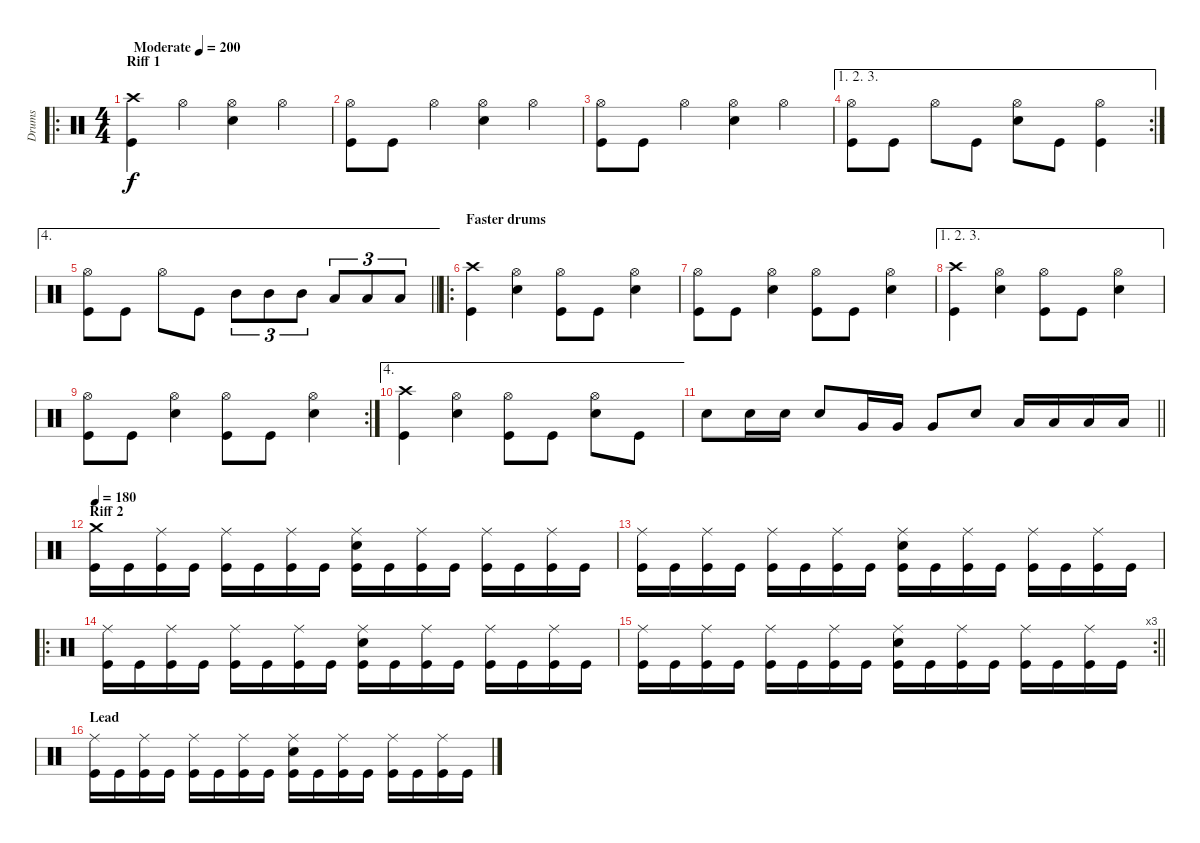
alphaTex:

\track ("Drums" "Drums") {instrument percussion}
\staff {score}
\articulation defaults
\ro
\ts (4 4)
\section ("" "Riff 1")
\tempo (200 "Moderate")
\clef neutral
\ks c
("Crash high (hit)" "Kick (hit)").4{dy f} "Hi-Hat (open)".4 ("Hi-Hat (open)" "Snare (hit) 2").4 "Hi-Hat (open)".4 |
("Hi-Hat (open)" "Kick (hit)").8 "Kick (hit)".8 "Hi-Hat (open)".4 ("Hi-Hat (open)" "Snare (hit) 2").4 "Hi-Hat (open)".4 |
("Hi-Hat (open)" "Kick (hit)").8 "Kick (hit)".8 "Hi-Hat (open)".4 ("Hi-Hat (open)" "Snare (hit) 2").4 "Hi-Hat (open)".4 |
\ae (1 2 3)
\rc 2
("Hi-Hat (open)" "Kick (hit)").8 "Kick (hit)".8 "Hi-Hat (open)".8 "Kick (hit)".8 ("Hi-Hat (open)" "Snare (hit) 2").8 "Kick (hit)".8 ("Hi-Hat (open)" "Kick (hit)").4 |
\ae 4
\barLineRight lightlight
("Hi-Hat (open)" "Kick (hit)").8 "Kick (hit)".8 "Hi-Hat (open)".8 "Kick (hit)".8 "Mid Tom (hit)".8{tu (3 2)} "Mid Tom (hit)".8{tu (3 2)} "Mid Tom (hit)".8{tu (3 2)} "Low Tom (hit)".8{tu (3 2)} "Low Tom (hit)".8{tu (3 2)} "Low Tom (hit)".8{tu (3 2)} |
\ro
\section ("" "Faster drums")
("Crash high (hit)" "Kick (hit)").4 ("Hi-Hat (open)" "Snare (hit) 2").4 ("Hi-Hat (open)" "Kick (hit)").8 "Kick (hit)".8 ("Hi-Hat (open)" "Snare (hit) 2").4 |
("Hi-Hat (open)" "Kick (hit)").8 "Kick (hit)".8 ("Hi-Hat (open)" "Snare (hit) 2").4 ("Hi-Hat (open)" "Kick (hit)").8 "Kick (hit)".8 ("Hi-Hat (open)" "Snare (hit) 2").4 |
\ae (1 2 3)
("Crash high (hit)" "Kick (hit)").4 ("Hi-Hat (open)" "Snare (hit) 2").4 ("Hi-Hat (open)" "Kick (hit)").8 "Kick (hit)".8 ("Hi-Hat (open)" "Snare (hit) 2").4 |
\rc 2
("Hi-Hat (open)" "Kick (hit)").8 "Kick (hit)".8 ("Hi-Hat (open)" "Snare (hit) 2").4 ("Hi-Hat (open)" "Kick (hit)").8 "Kick (hit)".8 ("Hi-Hat (open)" "Snare (hit) 2").4 |
\ae 4
("Crash high (hit)" "Kick (hit)").4 ("Hi-Hat (open)" "Snare (hit) 2").4 ("Hi-Hat (open)" "Kick (hit)").8 "Kick (hit)".8 ("Hi-Hat (open)" "Snare (hit) 2").8 "Kick (hit)".8 |
\barLineRight lightlight "Snare (hit) 2".8 "Snare (hit) 2".16 "Snare (hit) 2".16 "Snare (hit) 2".8 "Very Low Tom (hit)".16 "Very Low Tom (hit)".16 "Very Low Tom (hit)".8 "Snare (hit) 2".8 "Low Floor Tom (hit)".16 "Low Floor Tom (hit)".16 "Low Floor Tom (hit)".16 "Low Floor Tom (hit)".16
|
\section ("" "Riff 2")
\tempo 180
("Crash medium (hit)" "Kick (hit)").16 "Kick (hit)".16 ("Ride (middle)" "Kick (hit)").16 "Kick (hit)".16 ("Ride (middle)" "Kick (hit)").16 "Kick (hit)".16 ("Ride (middle)" "Kick (hit)").16 "Kick (hit)".16 ("Ride (middle)" "Snare (hit) 2" "Kick (hit)").16 "Kick (hit)".16 ("Ride (middle)" "Kick (hit)").16 "Kick (hit)".16 ("Ride (middle)" "Kick (hit)").16 "Kick (hit)".16 ("Ride (middle)" "Kick (hit)").16 "Kick (hit)".16 |
("Ride (middle)" "Kick (hit)").16 "Kick (hit)".16 ("Ride (middle)" "Kick (hit)").16 "Kick (hit)".16 ("Ride (middle)" "Kick (hit)").16 "Kick (hit)".16 ("Ride (middle)" "Kick (hit)").16 "Kick (hit)".16 ("Ride (middle)" "Snare (hit) 2" "Kick (hit)").16 "Kick (hit)".16 ("Ride (middle)" "Kick (hit)").16 "Kick (hit)".16 ("Ride (middle)" "Kick (hit)").16 "Kick (hit)".16 ("Ride (middle)" "Kick (hit)").16 "Kick (hit)".16 |
\ro
("Ride (middle)" "Kick (hit)").16 "Kick (hit)".16 ("Ride (middle)" "Kick (hit)").16 "Kick (hit)".16 ("Ride (middle)" "Kick (hit)").16 "Kick (hit)".16 ("Ride (middle)" "Kick (hit)").16 "Kick (hit)".16 ("Ride (middle)" "Snare (hit) 2" "Kick (hit)").16 "Kick (hit)".16 ("Ride (middle)" "Kick (hit)").16 "Kick (hit)".16 ("Ride (middle)" "Kick (hit)").16 "Kick (hit)".16 ("Ride (middle)" "Kick (hit)").16 "Kick (hit)".16 |
\rc 3
\barLineRight lightlight
("Ride (middle)" "Kick (hit)").16 "Kick (hit)".16 ("Ride (middle)" "Kick (hit)").16 "Kick (hit)".16 ("Ride (middle)" "Kick (hit)").16 "Kick (hit)".16 ("Ride (middle)" "Kick (hit)").16 "Kick (hit)".16 ("Ride (middle)" "Snare (hit) 2" "Kick (hit)").16 "Kick (hit)".16 ("Ride (middle)" "Kick (hit)").16 "Kick (hit)".16 ("Ride (middle)" "Kick (hit)").16 "Kick (hit)".16 ("Ride (middle)" "Kick (hit)").16 "Kick (hit)".16 |
\section ("" "Lead")
("Ride (middle)" "Kick (hit)").16 "Kick (hit)".16 ("Ride (middle)" "Kick (hit)").16 "Kick (hit)".16 ("Ride (middle)" "Kick (hit)").16 "Kick (hit)".16 ("Ride (middle)" "Kick (hit)").16 "Kick (hit)".16 ("Ride (middle)" "Snare (hit) 2" "Kick (hit)").16 "Kick (hit)".16 ("Ride (middle)" "Kick (hit)").16 "Kick (hit)".16 ("Ride (middle)" "Kick (hit)").16 "Kick (hit)".16 ("Ride (middle)" "Kick (hit)").16 "Kick (hit)".16
